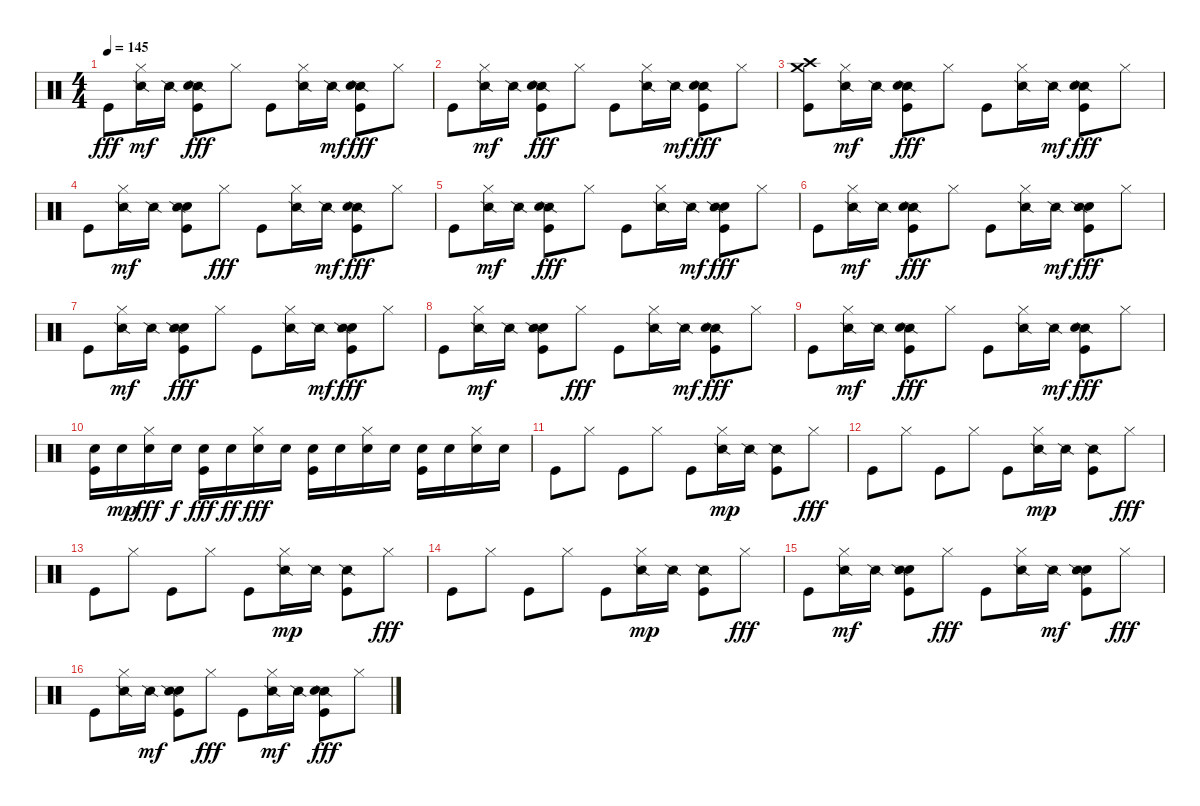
\track "" {instrument percussion}
\staff {score}
\articulation defaults
\ts (4 4)
\tempo 145
\clef neutral
\ks c "Kick (hit)".8{dy fff}
("Hi-Hat (closed)" "Snare (side stick) 2").16{dy mf} "Snare (side stick) 2".16 ("Snare (side stick) 2" "Hand Clap (hit)" "Kick (hit)").8{dy fff} "Hi-Hat (closed)".8 "Kick (hit)".8 ("Snare (side stick) 2" "Hi-Hat (closed)").16 "Snare (side stick) 2".16{dy mf} ("Kick (hit)" "Snare (side stick) 2" "Hand Clap (hit)").8{dy fff} "Hi-Hat (closed)".8 |
"Kick (hit)".8 ("Hi-Hat (closed)" "Snare (side stick) 2").16{dy mf} "Snare (side stick) 2".16 ("Snare (side stick) 2" "Kick (hit)" "Hand Clap (hit)").8{dy fff} "Hi-Hat (closed)".8 "Kick (hit)".8 ("Snare (side stick) 2" "Hi-Hat (closed)").16 "Snare (side stick) 2".16{dy mf} ("Kick (hit)" "Snare (side stick) 2" "Hand Clap (hit)").8{dy fff} "Hi-Hat (closed)".8 |
("Crash high (hit)" "Crash medium (hit)" "Kick (hit)").8 ("Hi-Hat (closed)" "Snare (side stick) 2").16{dy mf} "Snare (side stick) 2".16 ("Snare (side stick) 2" "Kick (hit)" "Hand Clap (hit)").8{dy fff} "Hi-Hat (closed)".8 "Kick (hit)".8 ("Snare (side stick) 2" "Hi-Hat (closed)").16 "Snare (side stick) 2".16{dy mf} ("Snare (side stick) 2" "Kick (hit)" "Hand Clap (hit)").8{dy fff} "Hi-Hat (closed)".8 |
"Kick (hit)".8 ("Hi-Hat (closed)" "Snare (side stick) 2").16{dy mf} "Snare (side stick) 2".16 ("Kick (hit)" "Hand Clap (hit)" "Snare (side stick) 2").8 "Hi-Hat (closed)".8{dy fff} "Kick (hit)".8 ("Snare (side stick) 2" "Hi-Hat (closed)").16 "Snare (side stick) 2".16{dy mf} ("Snare (side stick) 2" "Kick (hit)" "Hand Clap (hit)").8{dy fff} "Hi-Hat (closed)".8 |
"Kick (hit)".8 ("Hi-Hat (closed)" "Snare (side stick) 2").16{dy mf} "Snare (side stick) 2".16 ("Snare (side stick) 2" "Hand Clap (hit)" "Kick (hit)").8{dy fff} "Hi-Hat (closed)".8 "Kick (hit)".8 ("Snare (side stick) 2" "Hi-Hat (closed)").16 "Snare (side stick) 2".16{dy mf} ("Hand Clap (hit)" "Snare (side stick) 2" "Kick (hit)").8{dy fff} "Hi-Hat (closed)".8 |
"Kick (hit)".8 ("Hi-Hat (closed)" "Snare (side stick) 2").16{dy mf} "Snare (side stick) 2".16 ("Snare (side stick) 2" "Hand Clap (hit)" "Kick (hit)").8{dy fff} "Hi-Hat (closed)".8 "Kick (hit)".8 ("Snare (side stick) 2" "Hi-Hat (closed)").16 "Snare (side stick) 2".16{dy mf} ("Hand Clap (hit)" "Snare (side stick) 2" "Kick (hit)").8{dy fff} "Hi-Hat (closed)".8 |
"Kick (hit)".8 ("Hi-Hat (closed)" "Snare (side stick) 2").16{dy mf} "Snare (side stick) 2".16 ("Hand Clap (hit)" "Snare (side stick) 2" "Kick (hit)").8{dy fff} "Hi-Hat (closed)".8 "Kick (hit)".8 ("Snare (side stick) 2" "Hi-Hat (closed)").16 "Snare (side stick) 2".16{dy mf} ("Hand Clap (hit)" "Snare (side stick) 2" "Kick (hit)").8{dy fff} "Hi-Hat (closed)".8 |
"Kick (hit)".8 ("Hi-Hat (closed)" "Snare (side stick) 2").16{dy mf} "Snare (side stick) 2".16 ("Kick (hit)" "Hand Clap (hit)" "Snare (side stick) 2").8 "Hi-Hat (closed)".8{dy fff} "Kick (hit)".8 ("Snare (side stick) 2" "Hi-Hat (closed)").16 "Snare (side stick) 2".16{dy mf} ("Snare (side stick) 2" "Kick (hit)" "Hand Clap (hit)").8{dy fff} "Hi-Hat (closed)".8 |
"Kick (hit)".8 ("Hi-Hat (closed)" "Snare (side stick) 2").16{dy mf} "Snare (side stick) 2".16 ("Snare (side stick) 2" "Kick (hit)" "Hand Clap (hit)").8{dy fff} "Hi-Hat (closed)".8 "Kick (hit)".8 ("Snare (side stick) 2" "Hi-Hat (closed)").16 "Snare (side stick) 2".16{dy mf} ("Kick (hit)" "Snare (side stick) 2" "Hand Clap (hit)").8{dy fff} "Hi-Hat (closed)".8 |
("Snare (hit) 2" "Kick (hit)").16 "Snare (hit) 2".16{dy mp} ("Snare (hit) 2" "Hi-Hat (closed)").16{dy fff} "Snare (hit) 2".16{dy f} ("Snare (hit) 2" "Kick (hit)").16{dy fff} "Snare (hit) 2".16{dy ff} ("Snare (hit) 2" "Hi-Hat (closed)").16{dy fff} "Snare (hit) 2".16 ("Snare (hit) 2" "Kick (hit)").16 "Snare (hit) 2".16 ("Hi-Hat (closed)" "Snare (hit) 2").16 "Snare (hit) 2".16 ("Snare (hit) 2" "Kick (hit)").16 "Snare (hit) 2".16 ("Hi-Hat (closed)" "Snare (hit) 2").16 "Snare (hit) 2".16 |
"Kick (hit)".8 "Hi-Hat (closed)".8 "Kick (hit)".8 "Hi-Hat (closed)".8 "Kick (hit)".8 ("Hi-Hat (closed)" "Snare (side stick) 2").16{dy mp} "Snare (side stick) 2".16 ("Kick (hit)" "Snare (side stick) 2").8 "Hi-Hat (closed)".8{dy fff} |
"Kick (hit)".8 "Hi-Hat (closed)".8 "Kick (hit)".8 "Hi-Hat (closed)".8 "Kick (hit)".8 ("Hi-Hat (closed)" "Snare (side stick) 2").16{dy mp} "Snare (side stick) 2".16 ("Kick (hit)" "Snare (side stick) 2").8 "Hi-Hat (closed)".8{dy fff} |
"Kick (hit)".8 "Hi-Hat (closed)".8 "Kick (hit)".8 "Hi-Hat (closed)".8 "Kick (hit)".8 ("Hi-Hat (closed)" "Snare (side stick) 2").16{dy mp} "Snare (side stick) 2".16 ("Kick (hit)" "Snare (side stick) 2").8 "Hi-Hat (closed)".8{dy fff} |
"Kick (hit)".8 "Hi-Hat (closed)".8 "Kick (hit)".8 "Hi-Hat (closed)".8 "Kick (hit)".8 ("Hi-Hat (closed)" "Snare (side stick) 2").16{dy mp} "Snare (side stick) 2".16 ("Kick (hit)" "Snare (side stick) 2").8 "Hi-Hat (closed)".8{dy fff} |
"Kick (hit)".8 ("Hi-Hat (closed)" "Snare (side stick) 2").16{dy mf} "Snare (side stick) 2".16 ("Hand Clap (hit)" "Kick (hit)" "Snare (side stick) 2").8 "Hi-Hat (closed)".8{dy fff} "Kick (hit)".8 ("Snare (side stick) 2" "Hi-Hat (closed)").16 "Snare (side stick) 2".16{dy mf} ("Hand Clap (hit)" "Kick (hit)" "Snare (side stick) 2").8 "Hi-Hat (closed)".8{dy fff} |
"Kick (hit)".8 ("Snare (side stick) 2" "Hi-Hat (closed)").16 "Snare (side stick) 2".16{dy mf} ("Kick (hit)" "Hand Clap (hit)" "Snare (side stick) 2").8 "Hi-Hat (closed)".8{dy fff} "Kick (hit)".8 ("Hi-Hat (closed)" "Snare (side stick) 2").16{dy mf} "Snare (side stick) 2".16 ("Snare (side stick) 2" "Kick (hit)" "Hand Clap (hit)").8{dy fff} "Hi-Hat (closed)".8
